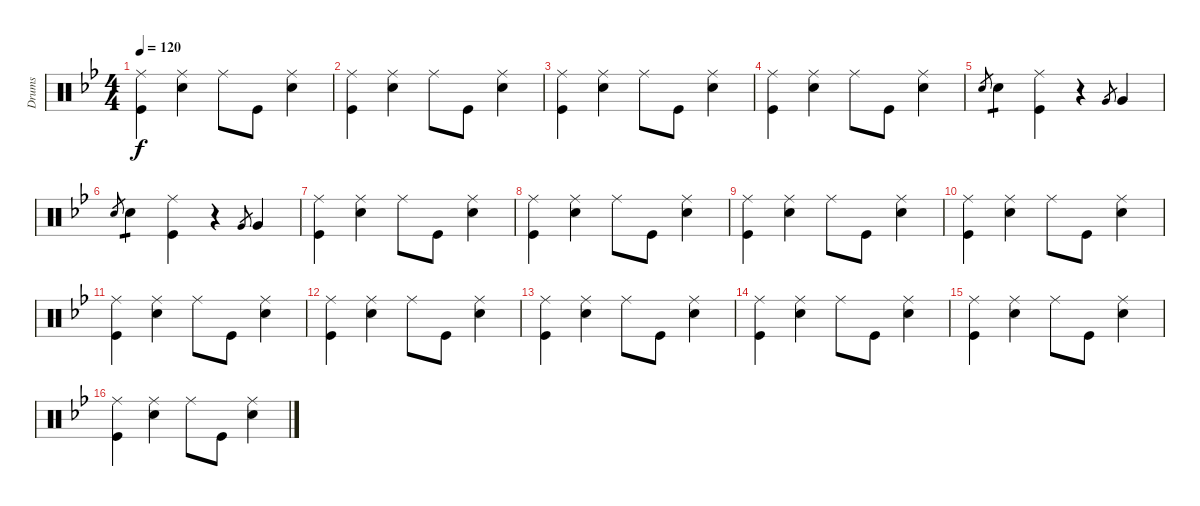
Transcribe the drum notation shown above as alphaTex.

\track ("Drums" "Drums") {instrument percussion}
\staff {score}
\articulation defaults
\ts (4 4)
\tempo 120
\clef neutral
\ks bb
("Ride (middle)" "Kick (hit)").4{dy f} ("Ride (middle)" "Snare (hit) 2").4 "Ride (middle)".8 "Kick (hit)".8 ("Ride (middle)" "Snare (hit) 2").4 |
("Ride (middle)" "Kick (hit)").4 ("Ride (middle)" "Snare (hit) 2").4 "Ride (middle)".8 "Kick (hit)".8 ("Ride (middle)" "Snare (hit) 2").4 |
("Ride (middle)" "Kick (hit)").4 ("Ride (middle)" "Snare (hit) 2").4 "Ride (middle)".8 "Kick (hit)".8 ("Ride (middle)" "Snare (hit) 2").4 |
("Ride (middle)" "Kick (hit)").4 ("Ride (middle)" "Snare (hit) 2").4 "Ride (middle)".8 "Kick (hit)".8 ("Ride (middle)" "Snare (hit) 2").4 |
"Snare (hit) 2".8{gr} "Snare (hit) 2".4{tp 1} ("Ride (middle)" "Kick (hit)").4 r.4 "Very Low Tom (hit)".8{gr} "Very Low Tom (hit)".4 |
"Snare (hit) 2".8{gr} "Snare (hit) 2".4{tp 1} ("Ride (middle)" "Kick (hit)").4 r.4 "Very Low Tom (hit)".8{gr} "Very Low Tom (hit)".4 |
("Ride (middle)" "Kick (hit)").4 ("Ride (middle)" "Snare (hit) 2").4 "Ride (middle)".8 "Kick (hit)".8 ("Ride (middle)" "Snare (hit) 2").4 |
("Ride (middle)" "Kick (hit)").4 ("Ride (middle)" "Snare (hit) 2").4 "Ride (middle)".8 "Kick (hit)".8 ("Ride (middle)" "Snare (hit) 2").4 |
("Ride (middle)" "Kick (hit)").4 ("Ride (middle)" "Snare (hit) 2").4 "Ride (middle)".8 "Kick (hit)".8 ("Ride (middle)" "Snare (hit) 2").4 |
("Ride (middle)" "Kick (hit)").4 ("Ride (middle)" "Snare (hit) 2").4 "Ride (middle)".8 "Kick (hit)".8 ("Ride (middle)" "Snare (hit) 2").4 |
("Ride (middle)" "Kick (hit)").4 ("Ride (middle)" "Snare (hit) 2").4 "Ride (middle)".8 "Kick (hit)".8 ("Ride (middle)" "Snare (hit) 2").4 |
("Ride (middle)" "Kick (hit)").4 ("Ride (middle)" "Snare (hit) 2").4 "Ride (middle)".8 "Kick (hit)".8 ("Ride (middle)" "Snare (hit) 2").4 |
("Ride (middle)" "Kick (hit)").4 ("Ride (middle)" "Snare (hit) 2").4 "Ride (middle)".8 "Kick (hit)".8 ("Ride (middle)" "Snare (hit) 2").4 |
("Ride (middle)" "Kick (hit)").4 ("Ride (middle)" "Snare (hit) 2").4 "Ride (middle)".8 "Kick (hit)".8 ("Ride (middle)" "Snare (hit) 2").4 |
("Ride (middle)" "Kick (hit)").4 ("Ride (middle)" "Snare (hit) 2").4 "Ride (middle)".8 "Kick (hit)".8 ("Ride (middle)" "Snare (hit) 2").4 |
("Ride (middle)" "Kick (hit)").4 ("Ride (middle)" "Snare (hit) 2").4 "Ride (middle)".8 "Kick (hit)".8 ("Ride (middle)" "Snare (hit) 2").4
